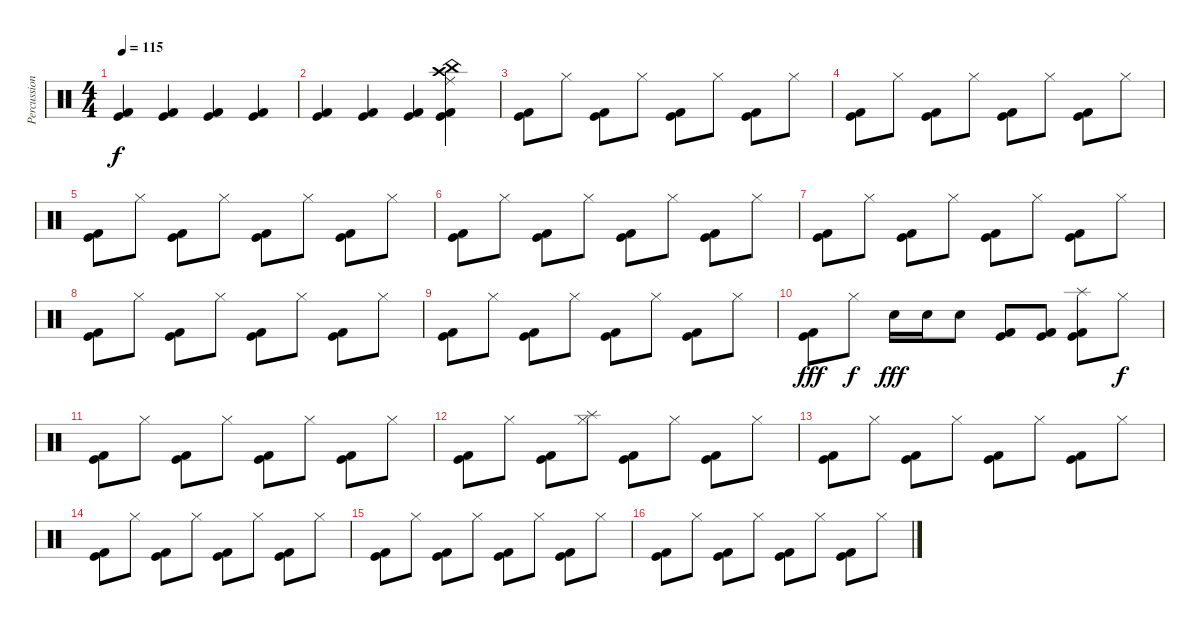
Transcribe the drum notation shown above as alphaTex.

\track ("Percussion" "Percussion") {instrument percussion}
\staff {score}
\articulation defaults
\ts (4 4)
\tempo 115
\clef neutral
\ks c
("Kick (hit) 2" "Kick (hit)").4{dy f} ("Kick (hit) 2" "Kick (hit)").4 ("Kick (hit) 2" "Kick (hit)").4 ("Kick (hit) 2" "Kick (hit)").4 |
("Kick (hit) 2" "Kick (hit)").4 ("Kick (hit) 2" "Kick (hit)").4 ("Kick (hit) 2" "Kick (hit)").4 ("Crash high (hit)" "China (hit)" "Ride (middle)" "Kick (hit) 2" "Kick (hit)").4{volume 16} |
("Kick (hit) 2" "Kick (hit)").8{volume 14} "Hi-Hat (closed)".8 ("Kick (hit) 2" "Kick (hit)").8 "Hi-Hat (closed)".8 ("Kick (hit) 2" "Kick (hit)").8 "Hi-Hat (closed)".8 ("Kick (hit) 2" "Kick (hit)").8 "Hi-Hat (closed)".8 |
("Kick (hit) 2" "Kick (hit)").8 "Hi-Hat (closed)".8 ("Kick (hit) 2" "Kick (hit)").8 "Hi-Hat (closed)".8 ("Kick (hit) 2" "Kick (hit)").8 "Hi-Hat (closed)".8 ("Kick (hit) 2" "Kick (hit)").8 "Hi-Hat (closed)".8 |
("Kick (hit) 2" "Kick (hit)").8 "Hi-Hat (closed)".8 ("Kick (hit) 2" "Kick (hit)").8 "Hi-Hat (closed)".8 ("Kick (hit) 2" "Kick (hit)").8 "Hi-Hat (closed)".8 ("Kick (hit) 2" "Kick (hit)").8 "Hi-Hat (closed)".8 |
("Kick (hit) 2" "Kick (hit)").8 "Hi-Hat (closed)".8 ("Kick (hit) 2" "Kick (hit)").8 "Hi-Hat (closed)".8 ("Kick (hit) 2" "Kick (hit)").8 "Hi-Hat (closed)".8 ("Kick (hit) 2" "Kick (hit)").8 "Hi-Hat (closed)".8 |
("Kick (hit) 2" "Kick (hit)").8 "Hi-Hat (closed)".8 ("Kick (hit) 2" "Kick (hit)").8 "Hi-Hat (closed)".8 ("Kick (hit) 2" "Kick (hit)").8 "Hi-Hat (closed)".8 ("Kick (hit) 2" "Kick (hit)").8 "Hi-Hat (closed)".8 |
("Kick (hit) 2" "Kick (hit)").8 "Hi-Hat (closed)".8 ("Kick (hit) 2" "Kick (hit)").8 "Hi-Hat (closed)".8 ("Kick (hit) 2" "Kick (hit)").8 "Hi-Hat (closed)".8 ("Kick (hit) 2" "Kick (hit)").8 "Hi-Hat (closed)".8 |
("Kick (hit) 2" "Kick (hit)").8 "Hi-Hat (closed)".8 ("Kick (hit) 2" "Kick (hit)").8 "Hi-Hat (closed)".8 ("Kick (hit) 2" "Kick (hit)").8 "Hi-Hat (closed)".8 ("Kick (hit) 2" "Kick (hit)").8 "Hi-Hat (closed)".8 |
("Kick (hit) 2" "Kick (hit)").8{dy fff volume 16} "Hi-Hat (closed)".8{dy f} "Snare (hit) 2".16{dy fff} "Snare (hit) 2".16 "Snare (hit) 2".8 ("Kick (hit) 2" "Kick (hit)").8 ("Kick (hit) 2" "Kick (hit)").8 ("Splash (hit)" "Kick (hit) 2" "Kick (hit)").8 "Hi-Hat (closed)".8{dy f} |
("Kick (hit) 2" "Kick (hit)").8 "Hi-Hat (closed)".8 ("Kick (hit) 2" "Kick (hit)").8 "Hi-Hat (closed)".8 ("Kick (hit) 2" "Kick (hit)").8 "Hi-Hat (closed)".8 ("Kick (hit) 2" "Kick (hit)").8 "Hi-Hat (closed)".8 |
("Kick (hit) 2" "Kick (hit)").8 "Hi-Hat (closed)".8 ("Kick (hit) 2" "Kick (hit)").8 ("Hi-Hat (closed)" "Splash (hit)").8 ("Kick (hit) 2" "Kick (hit)").8 "Hi-Hat (closed)".8 ("Kick (hit) 2" "Kick (hit)").8 "Hi-Hat (closed)".8 |
("Kick (hit) 2" "Kick (hit)").8 "Hi-Hat (closed)".8 ("Kick (hit) 2" "Kick (hit)").8 "Hi-Hat (closed)".8 ("Kick (hit) 2" "Kick (hit)").8 "Hi-Hat (closed)".8 ("Kick (hit) 2" "Kick (hit)").8 "Hi-Hat (closed)".8 |
("Kick (hit) 2" "Kick (hit)").8 "Hi-Hat (closed)".8 ("Kick (hit) 2" "Kick (hit)").8 "Hi-Hat (closed)".8 ("Kick (hit) 2" "Kick (hit)").8 "Hi-Hat (closed)".8 ("Kick (hit) 2" "Kick (hit)").8 "Hi-Hat (closed)".8 |
("Kick (hit) 2" "Kick (hit)").8 "Hi-Hat (closed)".8 ("Kick (hit) 2" "Kick (hit)").8 "Hi-Hat (closed)".8 ("Kick (hit) 2" "Kick (hit)").8 "Hi-Hat (closed)".8 ("Kick (hit) 2" "Kick (hit)").8 "Hi-Hat (closed)".8 |
("Kick (hit) 2" "Kick (hit)").8 "Hi-Hat (closed)".8 ("Kick (hit) 2" "Kick (hit)").8 "Hi-Hat (closed)".8 ("Kick (hit) 2" "Kick (hit)").8 "Hi-Hat (closed)".8 ("Kick (hit) 2" "Kick (hit)").8 "Hi-Hat (closed)".8
